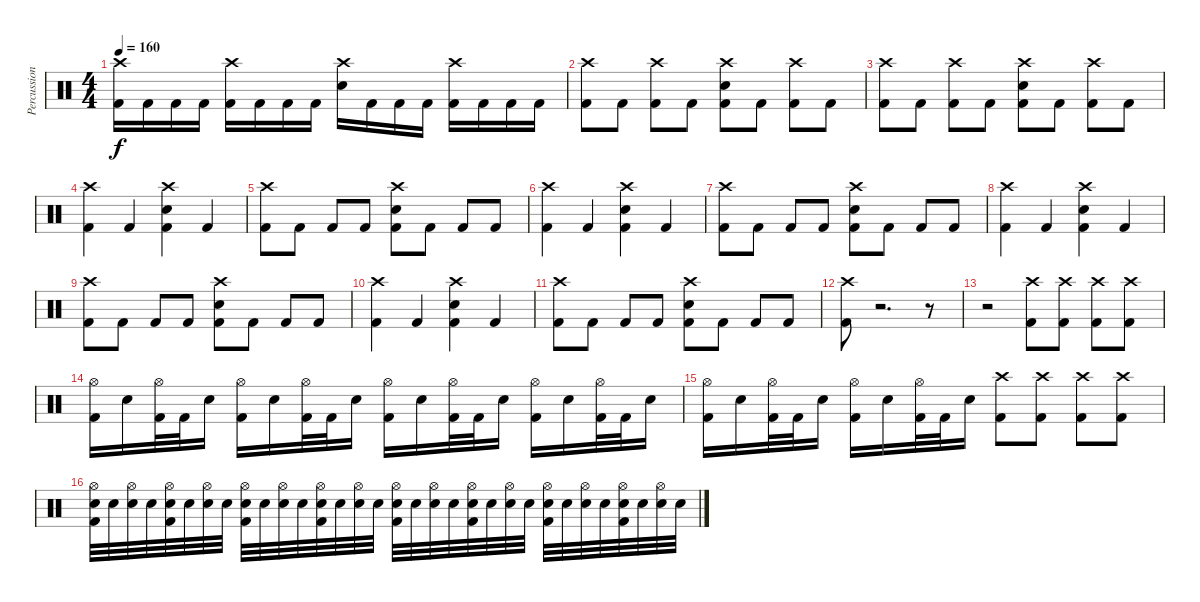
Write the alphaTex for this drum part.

\track ("Percussion" "Percussion") {instrument percussion}
\staff {score}
\articulation defaults
\ts (4 4)
\tempo 160
\clef neutral
\ks c
("Crash high (hit)" "Kick (hit) 2").16{dy f} "Kick (hit) 2".16 "Kick (hit) 2".16 "Kick (hit) 2".16 ("Crash high (hit)" "Kick (hit) 2").16 "Kick (hit) 2".16 "Kick (hit) 2".16 "Kick (hit) 2".16 ("Crash high (hit)" "Snare (hit) 2").16 "Kick (hit) 2".16 "Kick (hit) 2".16 "Kick (hit) 2".16 ("Crash high (hit)" "Kick (hit) 2").16 "Kick (hit) 2".16 "Kick (hit) 2".16 "Kick (hit) 2".16 |
("Crash high (hit)" "Kick (hit) 2").8 "Kick (hit) 2".8 ("Crash high (hit)" "Kick (hit) 2").8 "Kick (hit) 2".8 ("Snare (hit) 2" "Crash high (hit)" "Kick (hit) 2").8 "Kick (hit) 2".8 ("Crash high (hit)" "Kick (hit) 2").8 "Kick (hit) 2".8 |
("Crash high (hit)" "Kick (hit) 2").8 "Kick (hit) 2".8 ("Crash high (hit)" "Kick (hit) 2").8 "Kick (hit) 2".8 ("Snare (hit) 2" "Crash high (hit)" "Kick (hit) 2").8 "Kick (hit) 2".8 ("Crash high (hit)" "Kick (hit) 2").8 "Kick (hit) 2".8 |
("Crash high (hit)" "Kick (hit) 2").4 "Kick (hit) 2".4 ("Snare (hit) 2" "Crash high (hit)" "Kick (hit) 2").4 "Kick (hit) 2".4 |
("Crash high (hit)" "Kick (hit) 2").8 "Kick (hit) 2".8 "Kick (hit) 2".8 "Kick (hit) 2".8 ("Snare (hit) 2" "Crash high (hit)" "Kick (hit) 2").8 "Kick (hit) 2".8 "Kick (hit) 2".8 "Kick (hit) 2".8 |
("Crash high (hit)" "Kick (hit) 2").4 "Kick (hit) 2".4 ("Snare (hit) 2" "Crash high (hit)" "Kick (hit) 2").4 "Kick (hit) 2".4 |
("Crash high (hit)" "Kick (hit) 2").8 "Kick (hit) 2".8 "Kick (hit) 2".8 "Kick (hit) 2".8 ("Snare (hit) 2" "Crash high (hit)" "Kick (hit) 2").8 "Kick (hit) 2".8 "Kick (hit) 2".8 "Kick (hit) 2".8 |
("Crash high (hit)" "Kick (hit) 2").4 "Kick (hit) 2".4 ("Snare (hit) 2" "Crash high (hit)" "Kick (hit) 2").4 "Kick (hit) 2".4 |
("Crash high (hit)" "Kick (hit) 2").8 "Kick (hit) 2".8 "Kick (hit) 2".8 "Kick (hit) 2".8 ("Snare (hit) 2" "Crash high (hit)" "Kick (hit) 2").8 "Kick (hit) 2".8 "Kick (hit) 2".8 "Kick (hit) 2".8 |
("Crash high (hit)" "Kick (hit) 2").4 "Kick (hit) 2".4 ("Snare (hit) 2" "Crash high (hit)" "Kick (hit) 2").4 "Kick (hit) 2".4 |
("Crash high (hit)" "Kick (hit) 2").8 "Kick (hit) 2".8 "Kick (hit) 2".8 "Kick (hit) 2".8 ("Snare (hit) 2" "Crash high (hit)" "Kick (hit) 2").8 "Kick (hit) 2".8 "Kick (hit) 2".8 "Kick (hit) 2".8 |
("Kick (hit) 2" "Crash high (hit)").8 r.2{d} r.8 |
r.2 ("Crash high (hit)" "Kick (hit) 2").8 ("Crash high (hit)" "Kick (hit) 2").8 ("Crash high (hit)" "Kick (hit) 2").8 ("Crash high (hit)" "Kick (hit) 2").8 |
("Kick (hit) 2" "Hi-Hat (open)").16 "Snare (hit) 2".16 ("Kick (hit) 2" "Hi-Hat (open)").32 "Kick (hit) 2".32 "Snare (hit) 2".16 ("Kick (hit) 2" "Hi-Hat (open)").16 "Snare (hit) 2".16 ("Kick (hit) 2" "Hi-Hat (open)").32 "Kick (hit) 2".32 "Snare (hit) 2".16 ("Kick (hit) 2" "Hi-Hat (open)").16 "Snare (hit) 2".16 ("Kick (hit) 2" "Hi-Hat (open)").32 "Kick (hit) 2".32 "Snare (hit) 2".16 ("Kick (hit) 2" "Hi-Hat (open)").16 "Snare (hit) 2".16 ("Kick (hit) 2" "Hi-Hat (open)").32 "Kick (hit) 2".32 "Snare (hit) 2".16 |
("Kick (hit) 2" "Hi-Hat (open)").16 "Snare (hit) 2".16 ("Kick (hit) 2" "Hi-Hat (open)").32 "Kick (hit) 2".32 "Snare (hit) 2".16 ("Kick (hit) 2" "Hi-Hat (open)").16 "Snare (hit) 2".16 ("Kick (hit) 2" "Hi-Hat (open)").32 "Kick (hit) 2".32 "Snare (hit) 2".16 ("Crash high (hit)" "Kick (hit) 2").8 ("Crash high (hit)" "Kick (hit) 2").8 ("Crash high (hit)" "Kick (hit) 2").8 ("Crash high (hit)" "Kick (hit) 2").8 |
("Hi-Hat (open)" "Snare (hit) 2" "Kick (hit) 2").32 "Snare (hit) 2".32 ("Hi-Hat (open)" "Snare (hit) 2").32 "Snare (hit) 2".32 ("Hi-Hat (open)" "Snare (hit) 2" "Kick (hit) 2").32 "Snare (hit) 2".32 ("Hi-Hat (open)" "Snare (hit) 2").32 "Snare (hit) 2".32 ("Hi-Hat (open)" "Snare (hit) 2" "Kick (hit) 2").32 "Snare (hit) 2".32 ("Hi-Hat (open)" "Snare (hit) 2").32 "Snare (hit) 2".32 ("Hi-Hat (open)" "Snare (hit) 2" "Kick (hit) 2").32 "Snare (hit) 2".32 ("Hi-Hat (open)" "Snare (hit) 2").32 "Snare (hit) 2".32 ("Hi-Hat (open)" "Snare (hit) 2" "Kick (hit) 2").32 "Snare (hit) 2".32 ("Hi-Hat (open)" "Snare (hit) 2").32 "Snare (hit) 2".32 ("Hi-Hat (open)" "Snare (hit) 2" "Kick (hit) 2").32 "Snare (hit) 2".32 ("Hi-Hat (open)" "Snare (hit) 2").32 "Snare (hit) 2".32 ("Hi-Hat (open)" "Snare (hit) 2" "Kick (hit) 2").32 "Snare (hit) 2".32 ("Hi-Hat (open)" "Snare (hit) 2").32 "Snare (hit) 2".32 ("Hi-Hat (open)" "Snare (hit) 2" "Kick (hit) 2").32 "Snare (hit) 2".32 ("Hi-Hat (open)" "Snare (hit) 2").32 "Snare (hit) 2".32
